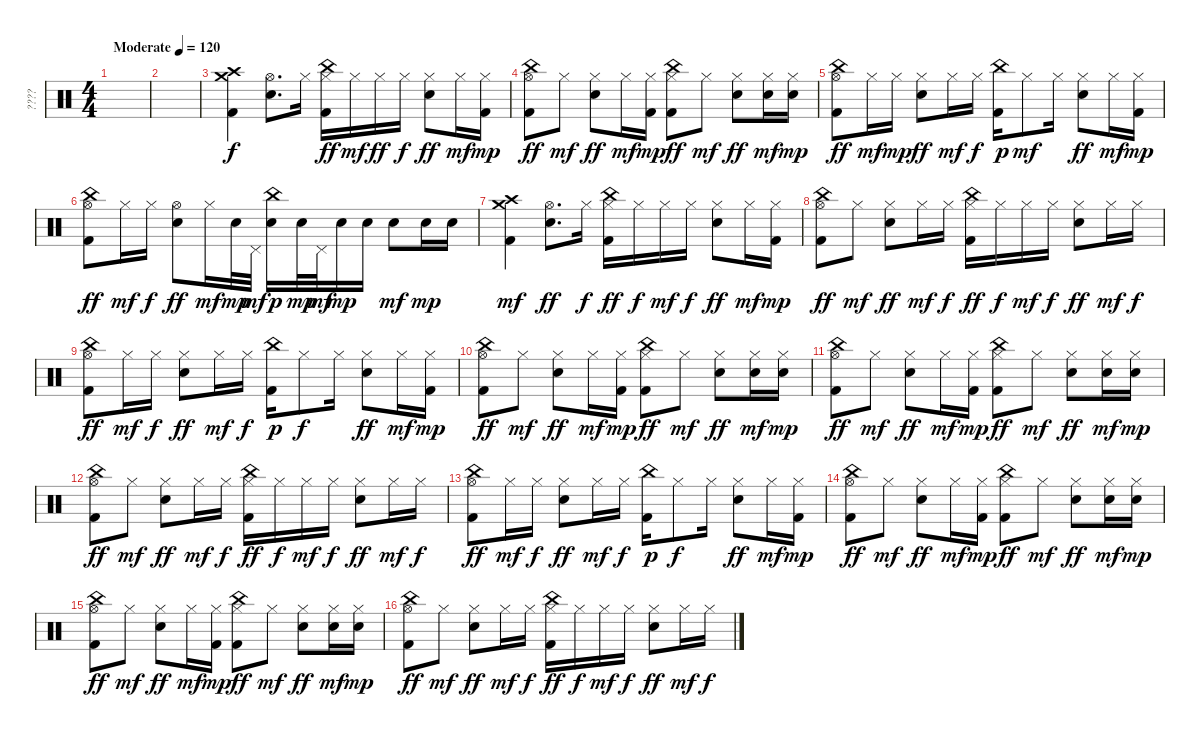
\track ("????" "????") {instrument percussion}
\staff {score}
\articulation defaults
\ts (4 4)
\tempo (120 "Moderate")
\clef neutral
\ks c
|
|
("Kick (hit) 2" "Crash high (hit)" "Crash medium (hit)").4 ("Snare (hit) 2" "Hi-Hat (open)").8{d} "Hi-Hat (closed)".16 ("Kick (hit) 2" "China (hit)" "Hi-Hat (closed)").16{dy ff} "Hi-Hat (closed)".16{dy mf} "Hi-Hat (closed)".16{dy ff} "Hi-Hat (closed)".16{dy f} ("Snare (hit) 2" "Hi-Hat (closed)").8{dy ff} "Hi-Hat (closed)".16{dy mf} ("Hi-Hat (closed)" "Kick (hit) 2").16{dy mp} |
("Kick (hit) 2" "China (hit)" "Hi-Hat (open)").8{dy ff} "Hi-Hat (closed)".8{dy mf} ("Snare (hit) 2" "Hi-Hat (closed)").8{dy ff} "Hi-Hat (closed)".16{dy mf} ("Hi-Hat (closed)" "Kick (hit) 2").16{dy mp} ("Kick (hit) 2" "China (hit)" "Hi-Hat (closed)").8{dy ff} "Hi-Hat (closed)".8{dy mf} ("Snare (hit) 2" "Hi-Hat (closed)").8{dy ff} ("Snare (hit) 2" "Hi-Hat (closed)").16{dy mf} ("Snare (hit) 2" "Hi-Hat (closed)").16{dy mp} |
("Kick (hit) 2" "China (hit)" "Hi-Hat (open)").8{dy ff} "Hi-Hat (closed)".16{dy mf} "Hi-Hat (closed)".16{dy mp} ("Snare (hit) 2" "Hi-Hat (closed)").8{dy ff} "Hi-Hat (closed)".16{dy mf} "Hi-Hat (closed)".16{dy f} ("Kick (hit) 2" "China (hit)").16{dy p} "Hi-Hat (closed)".8{dy mf} "Hi-Hat (closed)".16 ("Snare (hit) 2" "Hi-Hat (closed)").8{dy ff} "Hi-Hat (closed)".16{dy mf} ("Hi-Hat (closed)" "Kick (hit) 2").16{dy mp} |
("Kick (hit) 2" "China (hit)" "Hi-Hat (open)").8{dy ff} "Hi-Hat (closed)".16{dy mf} "Hi-Hat (closed)".16{dy f} ("Snare (hit) 2" "Hi-Hat (open)").8{dy ff} "Hi-Hat (closed)".16{dy mf} "Snare (hit) 2".32{dy mp} "Pedal Hi-Hat (hit)".32{dy mf} ("Snare (hit) 2" "China (hit)").16{dy p} "Snare (hit) 2".32{dy mp} "Pedal Hi-Hat (hit)".32{dy mf} "Snare (hit) 2".16{dy mp} "Snare (hit) 2".16 "Snare (hit) 2".8{dy mf} "Snare (hit) 2".16{dy mp} "Snare (hit) 2".16 |
("Kick (hit) 2" "Crash medium (hit)" "Crash high (hit)").4{dy mf} ("Snare (hit) 2" "Hi-Hat (open)").8{d dy ff} "Hi-Hat (closed)".16{dy f} ("Kick (hit) 2" "China (hit)" "Hi-Hat (closed)").16{dy ff} "Hi-Hat (closed)".16{dy f} "Hi-Hat (closed)".16{dy mf} "Hi-Hat (closed)".16{dy f} ("Snare (hit) 2" "Hi-Hat (closed)").8{dy ff} "Hi-Hat (closed)".16{dy mf} ("Hi-Hat (closed)" "Kick (hit) 2").16{dy mp} |
("Kick (hit) 2" "China (hit)" "Hi-Hat (open)").8{dy ff} "Hi-Hat (closed)".8{dy mf} ("Snare (hit) 2" "Hi-Hat (closed)").8{dy ff} "Hi-Hat (closed)".16{dy mf} "Hi-Hat (closed)".16{dy f} ("Kick (hit) 2" "China (hit)" "Hi-Hat (closed)").16{dy ff} "Hi-Hat (closed)".16{dy f} "Hi-Hat (closed)".16{dy mf} "Hi-Hat (closed)".16{dy f} ("Snare (hit) 2" "Hi-Hat (closed)").8{dy ff} "Hi-Hat (closed)".16{dy mf} "Hi-Hat (closed)".16{dy f} |
("Kick (hit) 2" "China (hit)" "Hi-Hat (open)").8{dy ff} "Hi-Hat (closed)".16{dy mf} "Hi-Hat (closed)".16{dy f} ("Snare (hit) 2" "Hi-Hat (closed)").8{dy ff} "Hi-Hat (closed)".16{dy mf} "Hi-Hat (closed)".16{dy f} ("Kick (hit) 2" "China (hit)").16{dy p} "Hi-Hat (closed)".8{dy f} "Hi-Hat (closed)".16 ("Snare (hit) 2" "Hi-Hat (closed)").8{dy ff} "Hi-Hat (closed)".16{dy mf} ("Hi-Hat (closed)" "Kick (hit) 2").16{dy mp} |
("Kick (hit) 2" "China (hit)" "Hi-Hat (open)").8{dy ff} "Hi-Hat (closed)".8{dy mf} ("Snare (hit) 2" "Hi-Hat (closed)").8{dy ff} "Hi-Hat (closed)".16{dy mf} ("Hi-Hat (closed)" "Kick (hit) 2").16{dy mp} ("Kick (hit) 2" "China (hit)" "Hi-Hat (closed)").8{dy ff} "Hi-Hat (closed)".8{dy mf} ("Snare (hit) 2" "Hi-Hat (closed)").8{dy ff} ("Snare (hit) 2" "Hi-Hat (closed)").16{dy mf} ("Snare (hit) 2" "Hi-Hat (closed)").16{dy mp} |
("Kick (hit) 2" "China (hit)" "Hi-Hat (open)").8{dy ff} "Hi-Hat (closed)".8{dy mf} ("Snare (hit) 2" "Hi-Hat (closed)").8{dy ff} "Hi-Hat (closed)".16{dy mf} ("Hi-Hat (closed)" "Kick (hit) 2").16{dy mp} ("Kick (hit) 2" "China (hit)" "Hi-Hat (closed)").8{dy ff} "Hi-Hat (closed)".8{dy mf} ("Snare (hit) 2" "Hi-Hat (closed)").8{dy ff} ("Snare (hit) 2" "Hi-Hat (closed)").16{dy mf} ("Snare (hit) 2" "Hi-Hat (closed)").16{dy mp} |
("Kick (hit) 2" "China (hit)" "Hi-Hat (open)").8{dy ff} "Hi-Hat (closed)".8{dy mf} ("Snare (hit) 2" "Hi-Hat (closed)").8{dy ff} "Hi-Hat (closed)".16{dy mf} "Hi-Hat (closed)".16{dy f} ("Kick (hit) 2" "China (hit)" "Hi-Hat (closed)").16{dy ff} "Hi-Hat (closed)".16{dy f} "Hi-Hat (closed)".16{dy mf} "Hi-Hat (closed)".16{dy f} ("Snare (hit) 2" "Hi-Hat (closed)").8{dy ff} "Hi-Hat (closed)".16{dy mf} "Hi-Hat (closed)".16{dy f} |
("Kick (hit) 2" "China (hit)" "Hi-Hat (open)").8{dy ff} "Hi-Hat (closed)".16{dy mf} "Hi-Hat (closed)".16{dy f} ("Snare (hit) 2" "Hi-Hat (closed)").8{dy ff} "Hi-Hat (closed)".16{dy mf} "Hi-Hat (closed)".16{dy f} ("Kick (hit) 2" "China (hit)").16{dy p} "Hi-Hat (closed)".8{dy f} "Hi-Hat (closed)".16 ("Snare (hit) 2" "Hi-Hat (closed)").8{dy ff} "Hi-Hat (closed)".16{dy mf} ("Hi-Hat (closed)" "Kick (hit) 2").16{dy mp} |
("Kick (hit) 2" "China (hit)" "Hi-Hat (open)").8{dy ff} "Hi-Hat (closed)".8{dy mf} ("Snare (hit) 2" "Hi-Hat (closed)").8{dy ff} "Hi-Hat (closed)".16{dy mf} ("Hi-Hat (closed)" "Kick (hit) 2").16{dy mp} ("Kick (hit) 2" "China (hit)" "Hi-Hat (closed)").8{dy ff} "Hi-Hat (closed)".8{dy mf} ("Snare (hit) 2" "Hi-Hat (closed)").8{dy ff} ("Snare (hit) 2" "Hi-Hat (closed)").16{dy mf} ("Snare (hit) 2" "Hi-Hat (closed)").16{dy mp} |
("Kick (hit) 2" "China (hit)" "Hi-Hat (open)").8{dy ff} "Hi-Hat (closed)".8{dy mf} ("Snare (hit) 2" "Hi-Hat (closed)").8{dy ff} "Hi-Hat (closed)".16{dy mf} ("Hi-Hat (closed)" "Kick (hit) 2").16{dy mp} ("Kick (hit) 2" "China (hit)" "Hi-Hat (closed)").8{dy ff} "Hi-Hat (closed)".8{dy mf} ("Snare (hit) 2" "Hi-Hat (closed)").8{dy ff} ("Snare (hit) 2" "Hi-Hat (closed)").16{dy mf} ("Snare (hit) 2" "Hi-Hat (closed)").16{dy mp} |
("Kick (hit) 2" "China (hit)" "Hi-Hat (open)").8{dy ff} "Hi-Hat (closed)".8{dy mf} ("Snare (hit) 2" "Hi-Hat (closed)").8{dy ff} "Hi-Hat (closed)".16{dy mf} "Hi-Hat (closed)".16{dy f} ("Kick (hit) 2" "China (hit)" "Hi-Hat (closed)").16{dy ff} "Hi-Hat (closed)".16{dy f} "Hi-Hat (closed)".16{dy mf} "Hi-Hat (closed)".16{dy f} ("Snare (hit) 2" "Hi-Hat (closed)").8{dy ff} "Hi-Hat (closed)".16{dy mf} "Hi-Hat (closed)".16{dy f}
